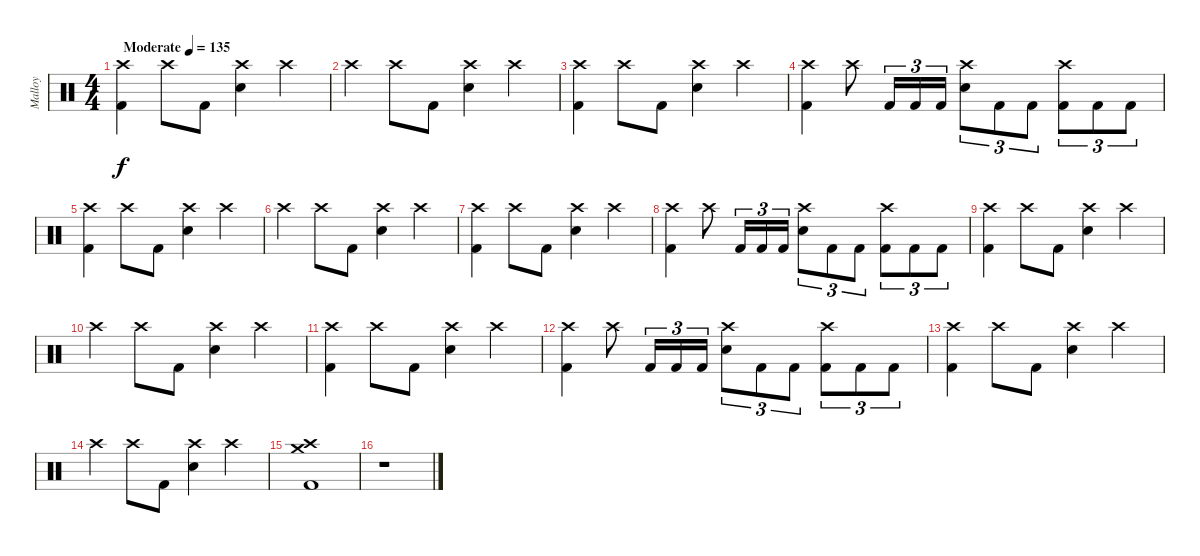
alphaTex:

\track ("Malloy" "Malloy") {instrument percussion}
\staff {score}
\articulation defaults
\ts (4 4)
\tempo (135 "Moderate")
\clef neutral
\ks c
("Kick (hit) 2" "Crash high (hit)").4{dy f} "Crash high (hit)".8 "Kick (hit) 2".8 ("Electric Snare (hit)" "Crash high (hit)").4 "Crash high (hit)".4 |
"Crash high (hit)".4 "Crash high (hit)".8 "Kick (hit) 2".8 ("Electric Snare (hit)" "Crash high (hit)").4 "Crash high (hit)".4 |
("Kick (hit) 2" "Crash high (hit)").4 "Crash high (hit)".8 "Kick (hit) 2".8 ("Electric Snare (hit)" "Crash high (hit)").4 "Crash high (hit)".4 |
("Kick (hit) 2" "Crash high (hit)").4 "Crash high (hit)".8 "Kick (hit) 2".16{tu (3 2)} "Kick (hit) 2".16{tu (3 2)} "Kick (hit) 2".16{tu (3 2)} ("Electric Snare (hit)" "Crash high (hit)").8{tu (3 2)} "Kick (hit) 2".8{tu (3 2)} "Kick (hit) 2".8{tu (3 2)} ("Kick (hit) 2" "Crash high (hit)").8{tu (3 2)} "Kick (hit) 2".8{tu (3 2)} "Kick (hit) 2".8{tu (3 2)} |
("Kick (hit) 2" "Crash high (hit)").4 "Crash high (hit)".8 "Kick (hit) 2".8 ("Electric Snare (hit)" "Crash high (hit)").4 "Crash high (hit)".4 |
"Crash high (hit)".4 "Crash high (hit)".8 "Kick (hit) 2".8 ("Electric Snare (hit)" "Crash high (hit)").4 "Crash high (hit)".4 |
("Kick (hit) 2" "Crash high (hit)").4 "Crash high (hit)".8 "Kick (hit) 2".8 ("Electric Snare (hit)" "Crash high (hit)").4 "Crash high (hit)".4 |
("Kick (hit) 2" "Crash high (hit)").4 "Crash high (hit)".8 "Kick (hit) 2".16{tu (3 2)} "Kick (hit) 2".16{tu (3 2)} "Kick (hit) 2".16{tu (3 2)} ("Electric Snare (hit)" "Crash high (hit)").8{tu (3 2)} "Kick (hit) 2".8{tu (3 2)} "Kick (hit) 2".8{tu (3 2)} ("Kick (hit) 2" "Crash high (hit)").8{tu (3 2)} "Kick (hit) 2".8{tu (3 2)} "Kick (hit) 2".8{tu (3 2)} |
("Kick (hit) 2" "Crash high (hit)").4 "Crash high (hit)".8 "Kick (hit) 2".8 ("Electric Snare (hit)" "Crash high (hit)").4 "Crash high (hit)".4 |
"Crash high (hit)".4 "Crash high (hit)".8 "Kick (hit) 2".8 ("Electric Snare (hit)" "Crash high (hit)").4 "Crash high (hit)".4 |
("Kick (hit) 2" "Crash high (hit)").4 "Crash high (hit)".8 "Kick (hit) 2".8 ("Electric Snare (hit)" "Crash high (hit)").4 "Crash high (hit)".4 |
("Kick (hit) 2" "Crash high (hit)").4 "Crash high (hit)".8 "Kick (hit) 2".16{tu (3 2)} "Kick (hit) 2".16{tu (3 2)} "Kick (hit) 2".16{tu (3 2)} ("Electric Snare (hit)" "Crash high (hit)").8{tu (3 2)} "Kick (hit) 2".8{tu (3 2)} "Kick (hit) 2".8{tu (3 2)} ("Kick (hit) 2" "Crash high (hit)").8{tu (3 2)} "Kick (hit) 2".8{tu (3 2)} "Kick (hit) 2".8{tu (3 2)} |
("Kick (hit) 2" "Crash high (hit)").4 "Crash high (hit)".8 "Kick (hit) 2".8 ("Electric Snare (hit)" "Crash high (hit)").4 "Crash high (hit)".4 |
"Crash high (hit)".4 "Crash high (hit)".8 "Kick (hit) 2".8 ("Electric Snare (hit)" "Crash high (hit)").4 "Crash high (hit)".4 |
("Kick (hit) 2" "Crash medium (hit)" "Crash high (hit)").1 |
r.1
